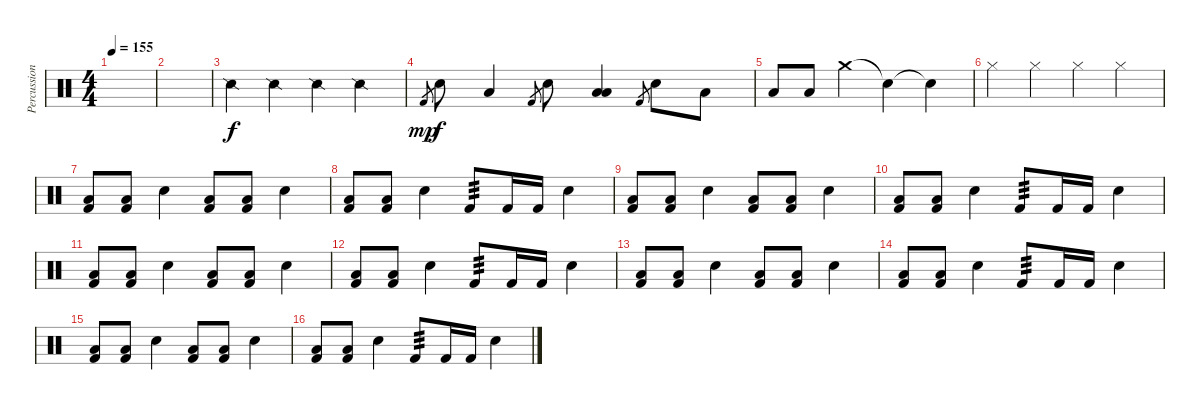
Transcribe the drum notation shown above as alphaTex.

\track ("Percussioni" "Percussion") {instrument percussion}
\staff {score}
\articulation defaults
\ts (4 4)
\tempo 155
\clef neutral
\ks c
|
|
"Snare (side stick) 2".4 "Snare (side stick) 2".4 "Snare (side stick) 2".4 "Snare (side stick) 2".4 |
"Kick (hit) 2".8{gr dy mp} "Snare (hit) 2".8{dy f} "Low Tom (hit)".4 "Kick (hit) 2".8{gr} "Snare (hit) 2".8 ("Low Floor Tom (hit)" "Low Tom (hit)").4 "Kick (hit) 2".8{gr} "Snare (hit) 2".8 "Low Tom (hit)".8 |
"Low Tom (hit)".8 "Low Tom (hit)".8 "Crash medium (hit)".4 "Snare (hit)"{t}.4 "Snare (hit)"{t}.4 |
"Hi-Hat (closed)".4 "Hi-Hat (closed)".4 "Hi-Hat (closed)".4 "Hi-Hat (closed)".4 |
("Kick (hit) 2" "Low Tom (hit)").8 ("Kick (hit) 2" "Low Tom (hit)").8 "Snare (hit) 2".4 ("Kick (hit) 2" "Low Tom (hit)").8 ("Kick (hit) 2" "Low Tom (hit)").8 "Snare (hit) 2".4 |
("Kick (hit) 2" "Low Tom (hit)").8 ("Kick (hit) 2" "Low Tom (hit)").8 "Snare (hit) 2".4 "Kick (hit) 2".8{tp 3} "Kick (hit) 2".16 "Kick (hit) 2".16 "Snare (hit) 2".4 |
("Kick (hit) 2" "Low Tom (hit)").8 ("Kick (hit) 2" "Low Tom (hit)").8 "Snare (hit) 2".4 ("Kick (hit) 2" "Low Tom (hit)").8 ("Kick (hit) 2" "Low Tom (hit)").8 "Snare (hit) 2".4 |
("Kick (hit) 2" "Low Tom (hit)").8 ("Kick (hit) 2" "Low Tom (hit)").8 "Snare (hit) 2".4 "Kick (hit) 2".8{tp 3} "Kick (hit) 2".16 "Kick (hit) 2".16 "Snare (hit) 2".4 |
("Kick (hit) 2" "Low Tom (hit)").8 ("Kick (hit) 2" "Low Tom (hit)").8 "Snare (hit) 2".4 ("Kick (hit) 2" "Low Tom (hit)").8 ("Kick (hit) 2" "Low Tom (hit)").8 "Snare (hit) 2".4 |
("Kick (hit) 2" "Low Tom (hit)").8 ("Kick (hit) 2" "Low Tom (hit)").8 "Snare (hit) 2".4 "Kick (hit) 2".8{tp 3} "Kick (hit) 2".16 "Kick (hit) 2".16 "Snare (hit) 2".4 |
("Kick (hit) 2" "Low Tom (hit)").8 ("Kick (hit) 2" "Low Tom (hit)").8 "Snare (hit) 2".4 ("Kick (hit) 2" "Low Tom (hit)").8 ("Kick (hit) 2" "Low Tom (hit)").8 "Snare (hit) 2".4 |
("Kick (hit) 2" "Low Tom (hit)").8 ("Kick (hit) 2" "Low Tom (hit)").8 "Snare (hit) 2".4 "Kick (hit) 2".8{tp 3} "Kick (hit) 2".16 "Kick (hit) 2".16 "Snare (hit) 2".4 |
("Kick (hit) 2" "Low Tom (hit)").8 ("Kick (hit) 2" "Low Tom (hit)").8 "Snare (hit) 2".4 ("Kick (hit) 2" "Low Tom (hit)").8 ("Kick (hit) 2" "Low Tom (hit)").8 "Snare (hit) 2".4 |
("Kick (hit) 2" "Low Tom (hit)").8 ("Kick (hit) 2" "Low Tom (hit)").8 "Snare (hit) 2".4 "Kick (hit) 2".8{tp 3} "Kick (hit) 2".16 "Kick (hit) 2".16 "Snare (hit) 2".4
